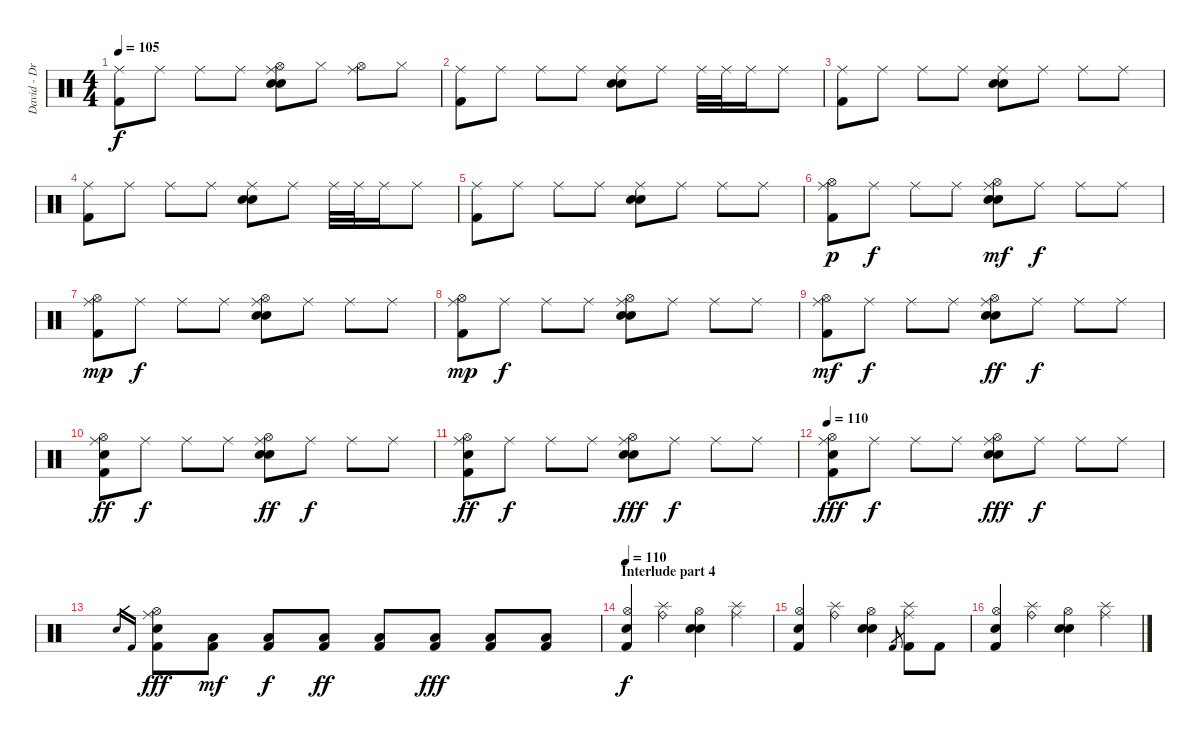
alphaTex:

\track ("David - Drums" "David - Dr") {instrument percussion}
\staff {score}
\articulation defaults
\ts (4 4)
\tempo 105
\clef neutral
\ks c
("Ride (middle)" "Kick (hit) 2").8{dy f} "Ride (middle)".8 "Ride (middle)".8 "Ride (middle)".8 ("Ride (middle)" "Hi-Hat (open)" "Electric Snare (hit)" "Snare (hit) 2").8 "Hi-Hat (closed)".8 ("Ride (middle)" "Hi-Hat (open)").8 "Hi-Hat (closed)".8 |
("Ride (middle)" "Kick (hit) 2").8 "Ride (middle)".8 "Ride (middle)".8 "Ride (middle)".8 ("Ride (middle)" "Electric Snare (hit)" "Snare (hit) 2").8 "Ride (middle)".8 "Ride (middle)".32 "Ride (middle)".32 "Ride (middle)".16 "Ride (middle)".8 |
("Ride (middle)" "Kick (hit) 2").8 "Ride (middle)".8 "Ride (middle)".8 "Ride (middle)".8 ("Ride (middle)" "Electric Snare (hit)" "Snare (hit) 2").8 "Ride (middle)".8 "Ride (middle)".8 "Ride (middle)".8 |
("Ride (middle)" "Kick (hit) 2").8 "Ride (middle)".8 "Ride (middle)".8 "Ride (middle)".8 ("Ride (middle)" "Electric Snare (hit)" "Snare (hit) 2").8 "Ride (middle)".8 "Ride (middle)".32 "Ride (middle)".32 "Ride (middle)".16 "Ride (middle)".8 |
("Ride (middle)" "Kick (hit) 2").8 "Ride (middle)".8 "Ride (middle)".8 "Ride (middle)".8 ("Ride (middle)" "Electric Snare (hit)" "Snare (hit) 2").8 "Ride (middle)".8 "Ride (middle)".8 "Ride (middle)".8 |
("Ride (middle)" "Hi-Hat (open)" "Kick (hit) 2").8{dy p} "Ride (middle)".8{dy f} "Ride (middle)".8 "Ride (middle)".8 ("Ride (middle)" "Hi-Hat (open)" "Electric Snare (hit)" "Snare (hit) 2").8{dy mf} "Ride (middle)".8{dy f} "Ride (middle)".8 "Ride (middle)".8 |
("Ride (middle)" "Hi-Hat (open)" "Kick (hit) 2").8{dy mp} "Ride (middle)".8{dy f} "Ride (middle)".8 "Ride (middle)".8 ("Ride (middle)" "Hi-Hat (open)" "Electric Snare (hit)" "Snare (hit) 2").8 "Ride (middle)".8 "Ride (middle)".8 "Ride (middle)".8 |
("Ride (middle)" "Hi-Hat (open)" "Kick (hit) 2").8{dy mp} "Ride (middle)".8{dy f} "Ride (middle)".8 "Ride (middle)".8 ("Ride (middle)" "Hi-Hat (open)" "Electric Snare (hit)" "Snare (hit) 2").8 "Ride (middle)".8 "Ride (middle)".8 "Ride (middle)".8 |
("Ride (middle)" "Hi-Hat (open)" "Kick (hit) 2").8{dy mf} "Ride (middle)".8{dy f} "Ride (middle)".8 "Ride (middle)".8 ("Ride (middle)" "Hi-Hat (open)" "Electric Snare (hit)" "Snare (hit) 2").8{dy ff} "Ride (middle)".8{dy f} "Ride (middle)".8 "Ride (middle)".8 |
("Ride (middle)" "Hi-Hat (open)" "Snare (hit) 2" "Kick (hit) 2").8{dy ff} "Ride (middle)".8{dy f} "Ride (middle)".8 "Ride (middle)".8 ("Ride (middle)" "Hi-Hat (open)" "Electric Snare (hit)" "Snare (hit) 2").8{dy ff} "Ride (middle)".8{dy f} "Ride (middle)".8 "Ride (middle)".8 |
("Ride (middle)" "Hi-Hat (open)" "Snare (hit) 2" "Kick (hit) 2").8{dy ff} "Ride (middle)".8{dy f} "Ride (middle)".8 "Ride (middle)".8 ("Ride (middle)" "Hi-Hat (open)" "Electric Snare (hit)" "Snare (hit) 2").8{dy fff} "Ride (middle)".8{dy f} "Ride (middle)".8 "Ride (middle)".8 |
\tempo 110
("Ride (middle)" "Hi-Hat (open)" "Snare (hit) 2" "Kick (hit) 2").8{dy fff} "Ride (middle)".8{dy f} "Ride (middle)".8 "Ride (middle)".8 ("Ride (middle)" "Hi-Hat (open)" "Electric Snare (hit)" "Snare (hit) 2").8{dy fff} "Ride (middle)".8{dy f} "Ride (middle)".8 "Ride (middle)".8 |
"Snare (hit) 2".16{gr} "Kick (hit) 2".16{gr} ("Ride (middle)" "Hi-Hat (open)" "Snare (hit) 2" "Kick (hit) 2").8{dy fff} ("Low Floor Tom (hit)" "Kick (hit) 2").8{dy mf} ("Low Floor Tom (hit)" "Kick (hit) 2").8{dy f} ("Low Floor Tom (hit)" "Kick (hit) 2").8{dy ff} ("Low Floor Tom (hit)" "Kick (hit) 2").8 ("Low Floor Tom (hit)" "Kick (hit) 2").8{dy fff} ("Low Floor Tom (hit)" "Kick (hit) 2").8 ("Low Floor Tom (hit)" "Kick (hit) 2").8 |
\section ("" "Interlude part 4")
\tempo 110
("Hi-Hat (open)" "Snare (hit) 2" "Kick (hit) 2").4{dy f} ("Ride (bell)" "Splash (hit)").4 ("Hi-Hat (open)" "Electric Snare (hit)" "Snare (hit) 2").4 ("Ride (middle)" "Splash (hit)").4 |
("Hi-Hat (open)" "Snare (hit) 2" "Kick (hit) 2").4 ("Ride (bell)" "Splash (hit)").4 ("Hi-Hat (open)" "Electric Snare (hit)" "Snare (hit) 2").4 "Kick (hit) 2".8{gr} ("Ride (middle)" "Splash (hit)" "Kick (hit) 2").8 "Kick (hit) 2".8 |
("Hi-Hat (open)" "Snare (hit) 2" "Kick (hit) 2").4 ("Ride (bell)" "Splash (hit)").4 ("Hi-Hat (open)" "Electric Snare (hit)" "Snare (hit) 2").4 ("Ride (middle)" "Splash (hit)").4
